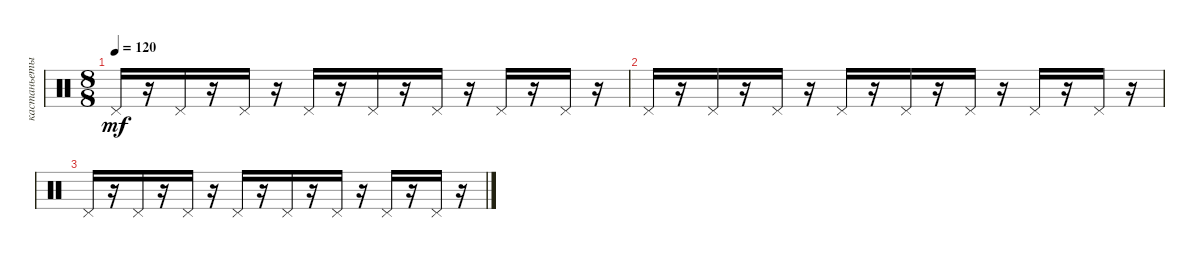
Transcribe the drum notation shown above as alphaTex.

\track ("кастаньеты" "кастаньеты") {instrument percussion}
\staff {score}
\articulation defaults
\ts (8 8)
\tempo 120
\clef neutral
\ks c "Pedal Hi-Hat (hit)".16{dy mf}
r.16 "Pedal Hi-Hat (hit)".16{volume 7} r.16 "Pedal Hi-Hat (hit)".16{volume 7} r.16 "Pedal Hi-Hat (hit)".16{volume 7} r.16 "Pedal Hi-Hat (hit)".16 r.16 "Pedal Hi-Hat (hit)".16{volume 6} r.16 "Pedal Hi-Hat (hit)".16{volume 6} r.16 "Pedal Hi-Hat (hit)".16{volume 6} r.16 |
"Pedal Hi-Hat (hit)".16 r.16 "Pedal Hi-Hat (hit)".16 r.16 "Pedal Hi-Hat (hit)".16{volume 6} r.16 "Pedal Hi-Hat (hit)".16{volume 5} r.16 "Pedal Hi-Hat (hit)".16{volume 5} r.16 "Pedal Hi-Hat (hit)".16{volume 5} r.16 "Pedal Hi-Hat (hit)".16 r.16 "Pedal Hi-Hat (hit)".16{volume 5} r.16 |
"Pedal Hi-Hat (hit)".16{volume 4} r.16 "Pedal Hi-Hat (hit)".16 r.16 "Pedal Hi-Hat (hit)".16{volume 4} r.16 "Pedal Hi-Hat (hit)".16{volume 4} r.16 "Pedal Hi-Hat (hit)".16{volume 3} r.16 "Pedal Hi-Hat (hit)".16{volume 3} r.16 "Pedal Hi-Hat (hit)".16{volume 3} r.16 "Pedal Hi-Hat (hit)".16{volume 3} r.16
